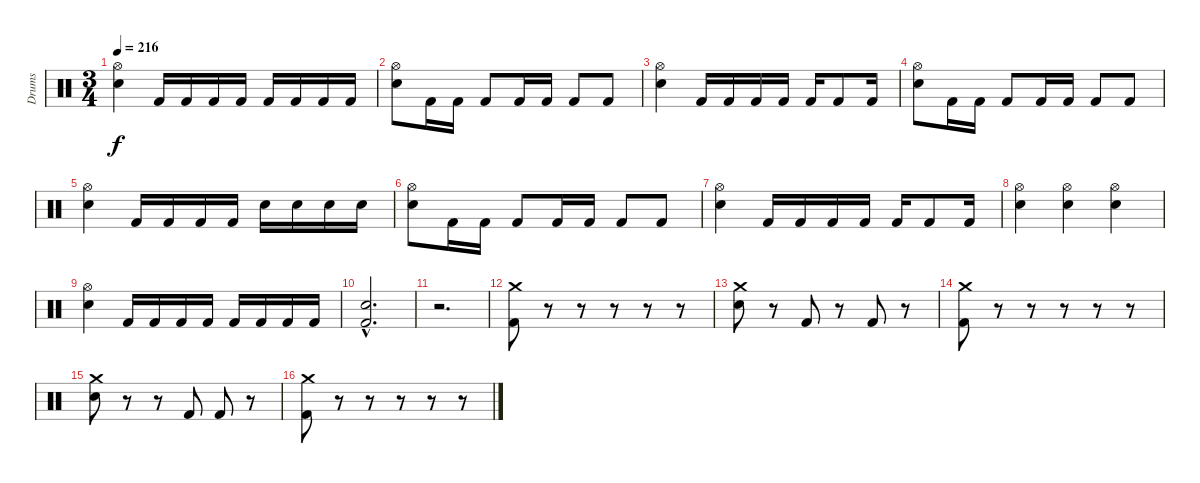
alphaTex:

\track ("Drums" "Drums") {instrument percussion}
\staff {score}
\articulation defaults
\ts (3 4)
\tempo 216
\clef neutral
\ks c
("Hi-Hat (open)" "Electric Snare (hit)").4{dy f} "Kick (hit) 2".16 "Kick (hit) 2".16 "Kick (hit) 2".16 "Kick (hit) 2".16 "Kick (hit) 2".16 "Kick (hit) 2".16 "Kick (hit) 2".16 "Kick (hit) 2".16 |
("Hi-Hat (open)" "Electric Snare (hit)").8 "Kick (hit) 2".16 "Kick (hit) 2".16 "Kick (hit) 2".8 "Kick (hit) 2".16 "Kick (hit) 2".16 "Kick (hit) 2".8 "Kick (hit) 2".8 |
("Hi-Hat (open)" "Electric Snare (hit)").4 "Kick (hit) 2".16 "Kick (hit) 2".16 "Kick (hit) 2".16 "Kick (hit) 2".16 "Kick (hit) 2".16 "Kick (hit) 2".8 "Kick (hit) 2".16 |
("Hi-Hat (open)" "Electric Snare (hit)").8 "Kick (hit) 2".16 "Kick (hit) 2".16 "Kick (hit) 2".8 "Kick (hit) 2".16 "Kick (hit) 2".16 "Kick (hit) 2".8 "Kick (hit) 2".8 |
("Hi-Hat (open)" "Electric Snare (hit)").4 "Kick (hit) 2".16 "Kick (hit) 2".16 "Kick (hit) 2".16 "Kick (hit) 2".16 "Electric Snare (hit)".16 "Electric Snare (hit)".16 "Electric Snare (hit)".16 "Electric Snare (hit)".16 |
("Hi-Hat (open)" "Electric Snare (hit)").8 "Kick (hit) 2".16 "Kick (hit) 2".16 "Kick (hit) 2".8 "Kick (hit) 2".16 "Kick (hit) 2".16 "Kick (hit) 2".8 "Kick (hit) 2".8 |
("Hi-Hat (open)" "Electric Snare (hit)").4 "Kick (hit) 2".16 "Kick (hit) 2".16 "Kick (hit) 2".16 "Kick (hit) 2".16 "Kick (hit) 2".16 "Kick (hit) 2".8 "Kick (hit) 2".16 |
("Hi-Hat (open)" "Electric Snare (hit)").4 ("Hi-Hat (open)" "Electric Snare (hit)").4 ("Hi-Hat (open)" "Electric Snare (hit)").4 |
("Hi-Hat (open)" "Electric Snare (hit)").4 "Kick (hit) 2".16 "Kick (hit) 2".16 "Kick (hit) 2".16 "Kick (hit) 2".16 "Kick (hit) 2".16 "Kick (hit) 2".16 "Kick (hit) 2".16 "Kick (hit) 2".16 |
("Electric Snare (hit)"{hac} "Kick (hit) 2"{hac}).2{d} |
r.2{d} |
("Crash medium (hit)" "Kick (hit) 2").8 r.8 r.8 r.8 r.8 r.8 |
("Crash medium (hit)" "Electric Snare (hit)").8 r.8 "Kick (hit) 2".8 r.8 "Kick (hit) 2".8 r.8 |
("Crash medium (hit)" "Kick (hit) 2").8 r.8 r.8 r.8 r.8 r.8 |
("Crash medium (hit)" "Electric Snare (hit)").8 r.8 r.8 "Kick (hit) 2".8 "Kick (hit) 2".8 r.8 |
("Crash medium (hit)" "Kick (hit) 2").8 r.8 r.8 r.8 r.8 r.8
